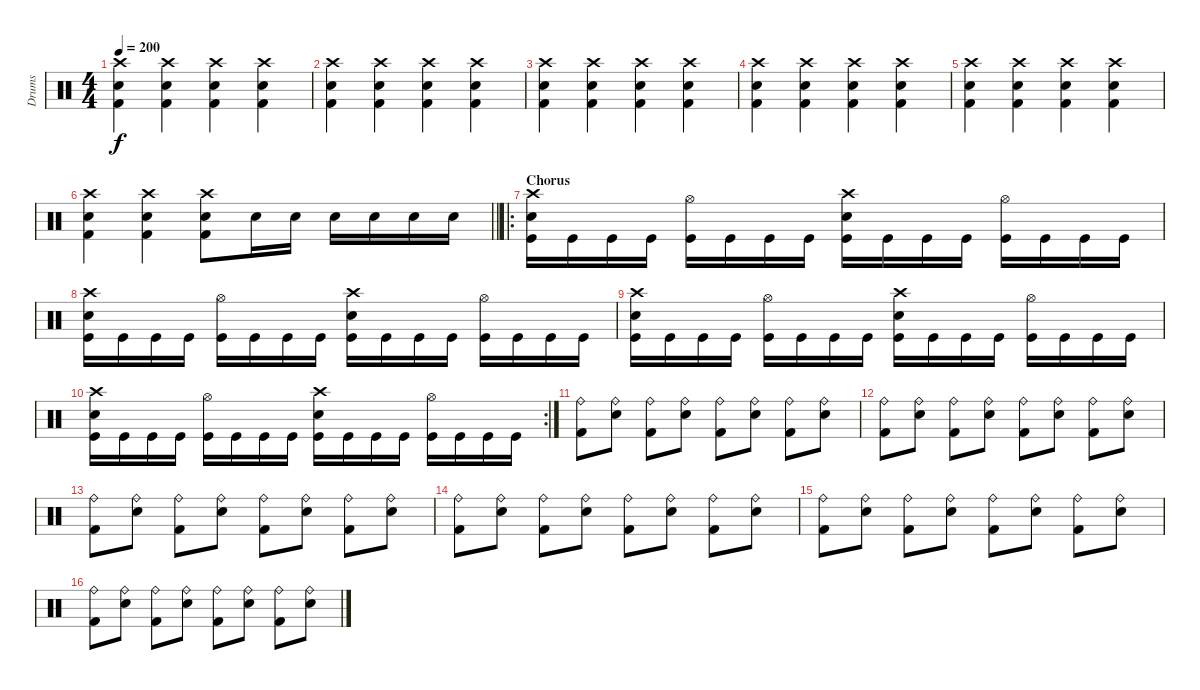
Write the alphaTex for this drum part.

\track ("Drums" "Drums") {instrument percussion}
\staff {score}
\articulation defaults
\ts (4 4)
\tempo 200
\clef neutral
\ks c
("Crash high (hit)" "Electric Snare (hit)" "Kick (hit) 2").4{dy f} ("Crash high (hit)" "Electric Snare (hit)" "Kick (hit) 2").4 ("Crash high (hit)" "Electric Snare (hit)" "Kick (hit) 2").4 ("Crash high (hit)" "Electric Snare (hit)" "Kick (hit) 2").4 |
("Crash high (hit)" "Electric Snare (hit)" "Kick (hit) 2").4 ("Crash high (hit)" "Electric Snare (hit)" "Kick (hit) 2").4 ("Crash high (hit)" "Electric Snare (hit)" "Kick (hit) 2").4 ("Crash high (hit)" "Electric Snare (hit)" "Kick (hit) 2").4 |
("Crash high (hit)" "Electric Snare (hit)" "Kick (hit) 2").4 ("Crash high (hit)" "Electric Snare (hit)" "Kick (hit) 2").4 ("Crash high (hit)" "Electric Snare (hit)" "Kick (hit) 2").4 ("Crash high (hit)" "Electric Snare (hit)" "Kick (hit) 2").4 |
("Crash high (hit)" "Electric Snare (hit)" "Kick (hit) 2").4 ("Crash high (hit)" "Electric Snare (hit)" "Kick (hit) 2").4 ("Crash high (hit)" "Electric Snare (hit)" "Kick (hit) 2").4 ("Crash high (hit)" "Electric Snare (hit)" "Kick (hit) 2").4 |
("Crash high (hit)" "Electric Snare (hit)" "Kick (hit) 2").4 ("Crash high (hit)" "Electric Snare (hit)" "Kick (hit) 2").4 ("Crash high (hit)" "Electric Snare (hit)" "Kick (hit) 2").4 ("Crash high (hit)" "Electric Snare (hit)" "Kick (hit) 2").4 |
\barLineRight lightlight
("Crash high (hit)" "Electric Snare (hit)" "Kick (hit) 2").4 ("Crash high (hit)" "Electric Snare (hit)" "Kick (hit) 2").4 ("Crash high (hit)" "Electric Snare (hit)" "Kick (hit) 2").8 "Snare (hit) 2".16 "Snare (hit) 2".16 "Snare (hit) 2".16 "Snare (hit) 2".16 "Snare (hit) 2".16 "Snare (hit) 2".16 |
\ro
\section ("" "Chorus")
("Crash high (hit)" "Snare (hit) 2" "Kick (hit)").16 "Kick (hit)".16 "Kick (hit)".16 "Kick (hit)".16 ("Hi-Hat (open)" "Kick (hit)").16 "Kick (hit)".16 "Kick (hit)".16 "Kick (hit)".16 ("Crash high (hit)" "Snare (hit) 2" "Kick (hit)").16 "Kick (hit)".16 "Kick (hit)".16 "Kick (hit)".16 ("Hi-Hat (open)" "Kick (hit)").16 "Kick (hit)".16 "Kick (hit)".16 "Kick (hit)".16 |
("Crash high (hit)" "Snare (hit) 2" "Kick (hit)").16 "Kick (hit)".16 "Kick (hit)".16 "Kick (hit)".16 ("Hi-Hat (open)" "Kick (hit)").16 "Kick (hit)".16 "Kick (hit)".16 "Kick (hit)".16 ("Crash high (hit)" "Snare (hit) 2" "Kick (hit)").16 "Kick (hit)".16 "Kick (hit)".16 "Kick (hit)".16 ("Hi-Hat (open)" "Kick (hit)").16 "Kick (hit)".16 "Kick (hit)".16 "Kick (hit)".16 |
("Crash high (hit)" "Snare (hit) 2" "Kick (hit)").16 "Kick (hit)".16 "Kick (hit)".16 "Kick (hit)".16 ("Hi-Hat (open)" "Kick (hit)").16 "Kick (hit)".16 "Kick (hit)".16 "Kick (hit)".16 ("Crash high (hit)" "Snare (hit) 2" "Kick (hit)").16 "Kick (hit)".16 "Kick (hit)".16 "Kick (hit)".16 ("Hi-Hat (open)" "Kick (hit)").16 "Kick (hit)".16 "Kick (hit)".16 "Kick (hit)".16 |
\rc 2
("Crash high (hit)" "Snare (hit) 2" "Kick (hit)").16 "Kick (hit)".16 "Kick (hit)".16 "Kick (hit)".16 ("Hi-Hat (open)" "Kick (hit)").16 "Kick (hit)".16 "Kick (hit)".16 "Kick (hit)".16 ("Crash high (hit)" "Snare (hit) 2" "Kick (hit)").16 "Kick (hit)".16 "Kick (hit)".16 "Kick (hit)".16 ("Hi-Hat (open)" "Kick (hit)").16 "Kick (hit)".16 "Kick (hit)".16 "Kick (hit)".16 |
("Ride (bell)" "Kick (hit) 2").8 ("Ride (bell)" "Snare (hit) 2").8 ("Ride (bell)" "Kick (hit) 2").8 ("Ride (bell)" "Snare (hit) 2").8 ("Ride (bell)" "Kick (hit) 2").8 ("Ride (bell)" "Snare (hit) 2").8 ("Ride (bell)" "Kick (hit) 2").8 ("Ride (bell)" "Snare (hit) 2").8 |
("Ride (bell)" "Kick (hit) 2").8 ("Ride (bell)" "Snare (hit) 2").8 ("Ride (bell)" "Kick (hit) 2").8 ("Ride (bell)" "Snare (hit) 2").8 ("Ride (bell)" "Kick (hit) 2").8 ("Ride (bell)" "Snare (hit) 2").8 ("Ride (bell)" "Kick (hit) 2").8 ("Ride (bell)" "Snare (hit) 2").8 |
("Ride (bell)" "Kick (hit) 2").8 ("Ride (bell)" "Snare (hit) 2").8 ("Ride (bell)" "Kick (hit) 2").8 ("Ride (bell)" "Snare (hit) 2").8 ("Ride (bell)" "Kick (hit) 2").8 ("Ride (bell)" "Snare (hit) 2").8 ("Ride (bell)" "Kick (hit) 2").8 ("Ride (bell)" "Snare (hit) 2").8 |
("Ride (bell)" "Kick (hit) 2").8 ("Ride (bell)" "Snare (hit) 2").8 ("Ride (bell)" "Kick (hit) 2").8 ("Ride (bell)" "Snare (hit) 2").8 ("Ride (bell)" "Kick (hit) 2").8 ("Ride (bell)" "Snare (hit) 2").8 ("Ride (bell)" "Kick (hit) 2").8 ("Ride (bell)" "Snare (hit) 2").8 |
("Ride (bell)" "Kick (hit) 2").8 ("Ride (bell)" "Snare (hit) 2").8 ("Ride (bell)" "Kick (hit) 2").8 ("Ride (bell)" "Snare (hit) 2").8 ("Ride (bell)" "Kick (hit) 2").8 ("Ride (bell)" "Snare (hit) 2").8 ("Ride (bell)" "Kick (hit) 2").8 ("Ride (bell)" "Snare (hit) 2").8 |
("Ride (bell)" "Kick (hit) 2").8 ("Ride (bell)" "Snare (hit) 2").8 ("Ride (bell)" "Kick (hit) 2").8 ("Ride (bell)" "Snare (hit) 2").8 ("Ride (bell)" "Kick (hit) 2").8 ("Ride (bell)" "Snare (hit) 2").8 ("Ride (bell)" "Kick (hit) 2").8 ("Ride (bell)" "Snare (hit) 2").8
